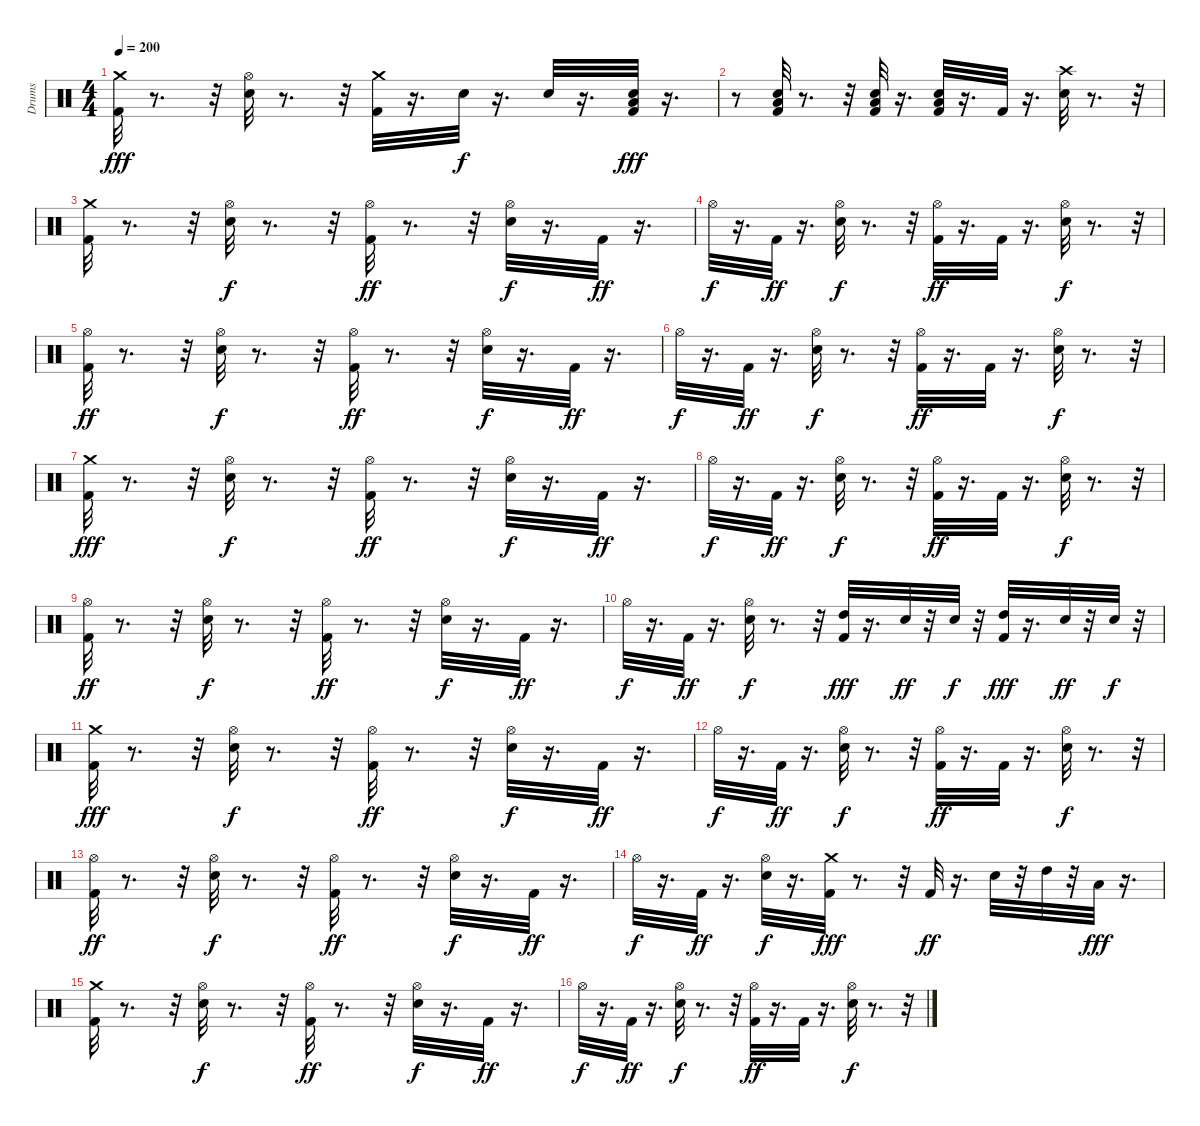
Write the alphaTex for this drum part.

\track ("Drums" "Drums") {instrument percussion}
\staff {score}
\articulation defaults
\ts (4 4)
\tempo 200
\clef neutral
\ks c
("Crash medium (hit)" "Kick (hit) 2").32{dy fff} r.8{d} r.32 ("Hi-Hat (open)" "Snare (hit) 2").32 r.8{d} r.32 ("Crash medium (hit)" "Kick (hit) 2").32 r.16{d} "Snare (hit) 2".32{dy f} r.16{d} "Snare (hit) 2".32 r.16{d} ("Low Floor Tom (hit)" "Kick (hit) 2" "Snare (hit) 2").32{dy fff} r.16{d} |
r.8 ("Low Floor Tom (hit)" "Kick (hit) 2" "Snare (hit) 2").32 r.8{d} r.32 ("Low Floor Tom (hit)" "Kick (hit) 2" "Snare (hit) 2").32 r.16{d} ("Low Floor Tom (hit)" "Kick (hit) 2" "Snare (hit) 2").32 r.16{d} "Kick (hit) 2".32 r.16{d} ("Crash high (hit)" "Snare (hit) 2").32 r.8{d} r.32 |
("Crash medium (hit)" "Kick (hit) 2").32 r.8{d} r.32 ("Hi-Hat (open)" "Snare (hit) 2").32{dy f} r.8{d} r.32 ("Hi-Hat (open)" "Kick (hit) 2").32{dy ff} r.8{d} r.32 ("Hi-Hat (open)" "Snare (hit) 2").32{dy f} r.16{d} "Kick (hit) 2".32{dy ff} r.16{d} |
"Hi-Hat (open)".32{dy f} r.16{d} "Kick (hit) 2".32{dy ff} r.16{d} ("Snare (hit) 2" "Hi-Hat (open)").32{dy f} r.8{d} r.32 ("Hi-Hat (open)" "Kick (hit) 2").32{dy ff} r.16{d} "Kick (hit) 2".32 r.16{d} ("Hi-Hat (open)" "Snare (hit) 2").32{dy f} r.8{d} r.32 |
("Hi-Hat (open)" "Kick (hit) 2").32{dy ff} r.8{d} r.32 ("Hi-Hat (open)" "Snare (hit) 2").32{dy f} r.8{d} r.32 ("Hi-Hat (open)" "Kick (hit) 2").32{dy ff} r.8{d} r.32 ("Hi-Hat (open)" "Snare (hit) 2").32{dy f} r.16{d} "Kick (hit) 2".32{dy ff} r.16{d} |
"Hi-Hat (open)".32{dy f} r.16{d} "Kick (hit) 2".32{dy ff} r.16{d} ("Hi-Hat (open)" "Snare (hit) 2").32{dy f} r.8{d} r.32 ("Hi-Hat (open)" "Kick (hit) 2").32{dy ff} r.16{d} "Kick (hit) 2".32 r.16{d} ("Hi-Hat (open)" "Snare (hit) 2").32{dy f} r.8{d} r.32 |
("Crash medium (hit)" "Kick (hit) 2").32{dy fff} r.8{d} r.32 ("Hi-Hat (open)" "Snare (hit) 2").32{dy f} r.8{d} r.32 ("Hi-Hat (open)" "Kick (hit) 2").32{dy ff} r.8{d} r.32 ("Hi-Hat (open)" "Snare (hit) 2").32{dy f} r.16{d} "Kick (hit) 2".32{dy ff} r.16{d} |
"Hi-Hat (open)".32{dy f} r.16{d} "Kick (hit) 2".32{dy ff} r.16{d} ("Hi-Hat (open)" "Snare (hit) 2").32{dy f} r.8{d} r.32 ("Hi-Hat (open)" "Kick (hit) 2").32{dy ff} r.16{d} "Kick (hit) 2".32 r.16{d} ("Hi-Hat (open)" "Snare (hit) 2").32{dy f} r.8{d} r.32 |
("Hi-Hat (open)" "Kick (hit) 2").32{dy ff} r.8{d} r.32 ("Hi-Hat (open)" "Snare (hit) 2").32{dy f} r.8{d} r.32 ("Hi-Hat (open)" "Kick (hit) 2").32{dy ff} r.8{d} r.32 ("Hi-Hat (open)" "Snare (hit) 2").32{dy f} r.16{d} "Kick (hit) 2".32{dy ff} r.16{d} |
"Hi-Hat (open)".32{dy f} r.16{d} "Kick (hit) 2".32{dy ff} r.16{d} ("Hi-Hat (open)" "Snare (hit) 2").32{dy f} r.8{d} r.32 ("High Tom (hit)" "Kick (hit) 2").32{dy fff} r.16{d} "Snare (hit) 2".32{dy ff} r.32 "Snare (hit) 2".32{dy f} r.32 ("High Tom (hit)" "Kick (hit) 2").32{dy fff} r.16{d} "Snare (hit) 2".32{dy ff} r.32 "Snare (hit) 2".32{dy f} r.32 |
("Crash medium (hit)" "Kick (hit) 2").32{dy fff} r.8{d} r.32 ("Hi-Hat (open)" "Snare (hit) 2").32{dy f} r.8{d} r.32 ("Hi-Hat (open)" "Kick (hit) 2").32{dy ff} r.8{d} r.32 ("Hi-Hat (open)" "Snare (hit) 2").32{dy f} r.16{d} "Kick (hit) 2".32{dy ff} r.16{d} |
"Hi-Hat (open)".32{dy f} r.16{d} "Kick (hit) 2".32{dy ff} r.16{d} ("Hi-Hat (open)" "Snare (hit) 2").32{dy f} r.8{d} r.32 ("Hi-Hat (open)" "Kick (hit) 2").32{dy ff} r.16{d} "Kick (hit) 2".32 r.16{d} ("Hi-Hat (open)" "Snare (hit) 2").32{dy f} r.8{d} r.32 |
("Hi-Hat (open)" "Kick (hit) 2").32{dy ff} r.8{d} r.32 ("Hi-Hat (open)" "Snare (hit) 2").32{dy f} r.8{d} r.32 ("Hi-Hat (open)" "Kick (hit) 2").32{dy ff} r.8{d} r.32 ("Hi-Hat (open)" "Snare (hit) 2").32{dy f} r.16{d} "Kick (hit) 2".32{dy ff} r.16{d} |
"Hi-Hat (open)".32{dy f} r.16{d} "Kick (hit) 2".32{dy ff} r.16{d} ("Hi-Hat (open)" "Snare (hit) 2").32{dy f} r.16{d} ("Crash medium (hit)" "Kick (hit) 2").32{dy fff} r.8{d} r.32 "Kick (hit) 2".32{dy ff} r.16{d} "Snare (hit) 2".32 r.32 "High Tom (hit)".32 r.32 "Low Floor Tom (hit)".32{dy fff} r.16{d} |
("Crash medium (hit)" "Kick (hit) 2").32 r.8{d} r.32 ("Hi-Hat (open)" "Snare (hit) 2").32{dy f} r.8{d} r.32 ("Hi-Hat (open)" "Kick (hit) 2").32{dy ff} r.8{d} r.32 ("Hi-Hat (open)" "Snare (hit) 2").32{dy f} r.16{d} "Kick (hit) 2".32{dy ff} r.16{d} |
"Hi-Hat (open)".32{dy f} r.16{d} "Kick (hit) 2".32{dy ff} r.16{d} ("Hi-Hat (open)" "Snare (hit) 2").32{dy f} r.8{d} r.32 ("Hi-Hat (open)" "Kick (hit) 2").32{dy ff} r.16{d} "Kick (hit) 2".32 r.16{d} ("Hi-Hat (open)" "Snare (hit) 2").32{dy f} r.8{d} r.32
